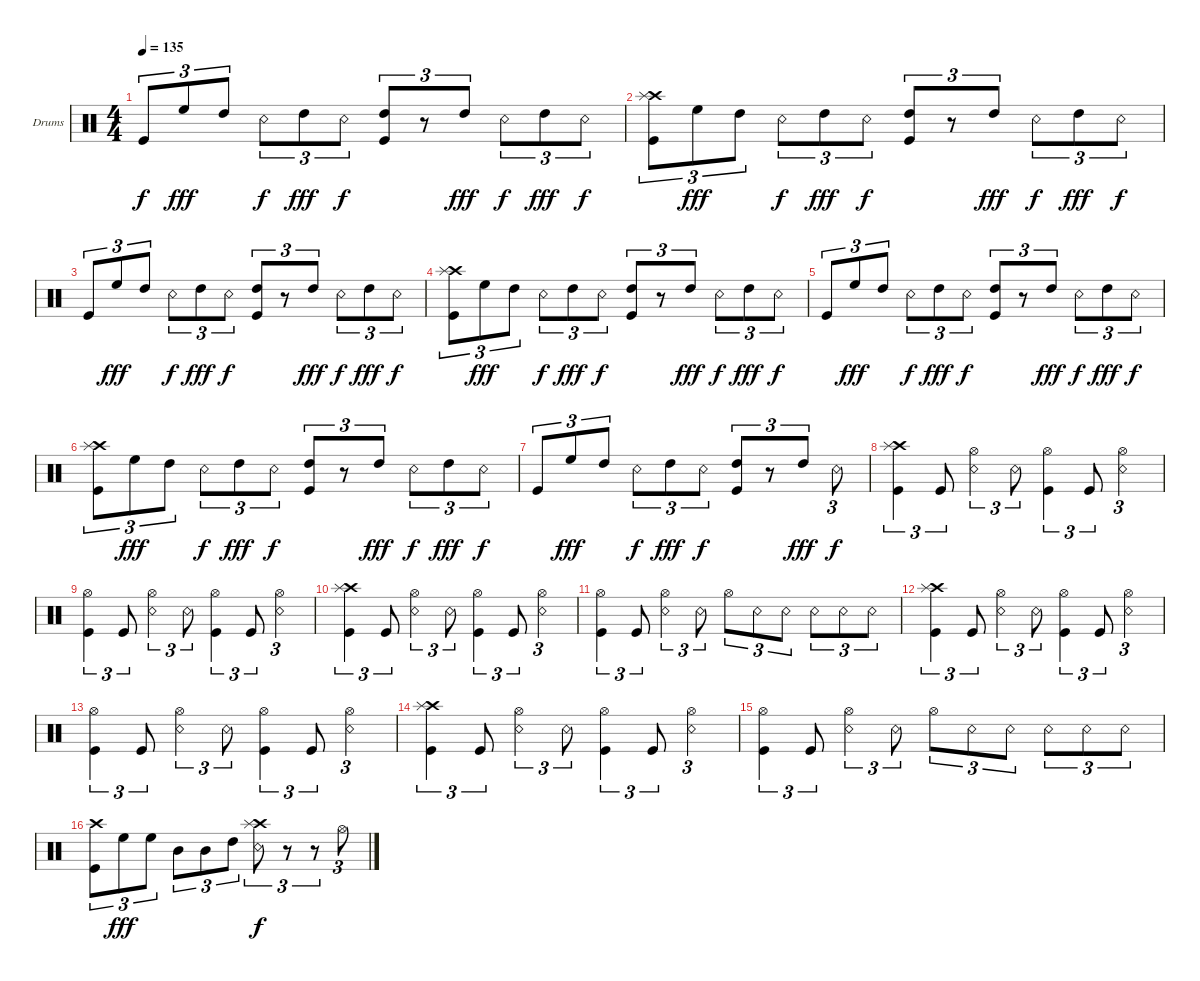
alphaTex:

\bracketExtendMode groupsimilarinstruments
\firstSystemTrackNameOrientation horizontal
\otherSystemsTrackNameOrientation horizontal
\track ("Drumkit" "Drums") {instrument percussion}
\staff {score}
\articulation defaults
\ts (4 4)
\tempo 135
\clef neutral
\scale
0.333333
\ks c "Kick (hit)".8{tu (3 2) dy f} "High Floor Tom (hit)".8{tu (3 2) dy fff} "High Tom (hit)".8{tu (3 2)} "Snare (rim shot)".8{tu (3 2) dy f} "High Tom (hit)".8{tu (3 2) dy fff} "Snare (rim shot)".8{tu (3 2) dy f}
("Kick (hit)" "High Tom (hit)").8{tu (3 2)} r.8{tu (3 2)} "High Tom (hit)".8{tu (3 2) dy fff} "Snare (rim shot)".8{tu (3 2) dy f} "High Tom (hit)".8{tu (3 2) dy fff} "Snare (rim shot)".8{tu (3 2) dy f} |
\scale
0.333333 ("Kick (hit)" "Crash high (hit)" "Splash (hit)").8{tu (3 2)} "High Floor Tom (hit)".8{tu (3 2) dy fff} "High Tom (hit)".8{tu (3 2)} "Snare (rim shot)".8{tu (3 2) dy f} "High Tom (hit)".8{tu (3 2) dy fff} "Snare (rim shot)".8{tu (3 2) dy f} ("Kick (hit)" "High Tom (hit)").8{tu (3 2)} r.8{tu (3 2)} "High Tom (hit)".8{tu (3 2) dy fff} "Snare (rim shot)".8{tu (3 2) dy f} "High Tom (hit)".8{tu (3 2) dy fff} "Snare (rim shot)".8{tu (3 2) dy f} |
\scale
0.333333 "Kick (hit)".8{tu (3 2)} "High Floor Tom (hit)".8{tu (3 2) dy fff} "High Tom (hit)".8{tu (3 2)} "Snare (rim shot)".8{tu (3 2) dy f} "High Tom (hit)".8{tu (3 2) dy fff} "Snare (rim shot)".8{tu (3 2) dy f} ("Kick (hit)" "High Tom (hit)").8{tu (3 2)} r.8{tu (3 2)} "High Tom (hit)".8{tu (3 2) dy fff} "Snare (rim shot)".8{tu (3 2) dy f} "High Tom (hit)".8{tu (3 2) dy fff} "Snare (rim shot)".8{tu (3 2) dy f} |
\scale
0.333333 ("Kick (hit)" "Crash high (hit)" "Splash (hit)").8{tu (3 2)} "High Floor Tom (hit)".8{tu (3 2) dy fff} "High Tom (hit)".8{tu (3 2)} "Snare (rim shot)".8{tu (3 2) dy f} "High Tom (hit)".8{tu (3 2) dy fff} "Snare (rim shot)".8{tu (3 2) dy f} ("Kick (hit)" "High Tom (hit)").8{tu (3 2)} r.8{tu (3 2)} "High Tom (hit)".8{tu (3 2) dy fff} "Snare (rim shot)".8{tu (3 2) dy f} "High Tom (hit)".8{tu (3 2) dy fff} "Snare (rim shot)".8{tu (3 2) dy f} |
\scale
0.333333 "Kick (hit)".8{tu (3 2)} "High Floor Tom (hit)".8{tu (3 2) dy fff} "High Tom (hit)".8{tu (3 2)} "Snare (rim shot)".8{tu (3 2) dy f} "High Tom (hit)".8{tu (3 2) dy fff} "Snare (rim shot)".8{tu (3 2) dy f} ("Kick (hit)" "High Tom (hit)").8{tu (3 2)} r.8{tu (3 2)} "High Tom (hit)".8{tu (3 2) dy fff} "Snare (rim shot)".8{tu (3 2) dy f} "High Tom (hit)".8{tu (3 2) dy fff} "Snare (rim shot)".8{tu (3 2) dy f} |
\scale
0.333333 ("Kick (hit)" "Crash high (hit)" "Splash (hit)").8{tu (3 2)} "High Floor Tom (hit)".8{tu (3 2) dy fff} "High Tom (hit)".8{tu (3 2)} "Snare (rim shot)".8{tu (3 2) dy f} "High Tom (hit)".8{tu (3 2) dy fff} "Snare (rim shot)".8{tu (3 2) dy f} ("Kick (hit)" "High Tom (hit)").8{tu (3 2)} r.8{tu (3 2)} "High Tom (hit)".8{tu (3 2) dy fff} "Snare (rim shot)".8{tu (3 2) dy f} "High Tom (hit)".8{tu (3 2) dy fff} "Snare (rim shot)".8{tu (3 2) dy f} |
\scale
0.333333 "Kick (hit)".8{tu (3 2)} "High Floor Tom (hit)".8{tu (3 2) dy fff} "High Tom (hit)".8{tu (3 2)} "Snare (rim shot)".8{tu (3 2) dy f} "High Tom (hit)".8{tu (3 2) dy fff} "Snare (rim shot)".8{tu (3 2) dy f} ("Kick (hit)" "High Tom (hit)").8{tu (3 2)} r.8{tu (3 2)} "High Tom (hit)".8{tu (3 2) dy fff} "Snare (rim shot)".8{tu (3 2) dy f} |
\scale
0.390805 ("Kick (hit)" "Crash high (hit)" "Splash (hit)").4{tu (3 2)} "Kick (hit)".8{tu (3 2)} ("Snare (rim shot)" "Hi-Hat (open)").4{tu (3 2)} "Snare (rim shot)".8{tu (3 2)} ("Kick (hit)" "Hi-Hat (open)").4{tu (3 2)} "Kick (hit)".8{tu (3 2)} ("Snare (rim shot)" "Hi-Hat (open)").4{tu (3 2)} |
\scale
0.218391 ("Kick (hit)" "Hi-Hat (open)").4{tu (3 2)} "Kick (hit)".8{tu (3 2)} ("Snare (rim shot)" "Hi-Hat (open)").4{tu (3 2)} "Snare (rim shot)".8{tu (3 2)} ("Kick (hit)" "Hi-Hat (open)").4{tu (3 2)} "Kick (hit)".8{tu (3 2)} ("Snare (rim shot)" "Hi-Hat (open)").4{tu (3 2)} |
\scale
0.333333 ("Kick (hit)" "Crash high (hit)" "Splash (hit)").4{tu (3 2)} "Kick (hit)".8{tu (3 2)} ("Snare (rim shot)" "Hi-Hat (open)").4{tu (3 2)} "Snare (rim shot)".8{tu (3 2)} ("Kick (hit)" "Hi-Hat (open)").4{tu (3 2)} "Kick (hit)".8{tu (3 2)} ("Snare (rim shot)" "Hi-Hat (open)").4{tu (3 2)} |
\scale
0.333333 ("Kick (hit)" "Hi-Hat (open)").4{tu (3 2)} "Kick (hit)".8{tu (3 2)} ("Snare (rim shot)" "Hi-Hat (open)").4{tu (3 2)} "Snare (rim shot)".8{tu (3 2)} "Hi-Hat (open)".8{tu (3 2)} "Snare (rim shot)".8{tu (3 2)} "Snare (rim shot)".8{tu (3 2)} "Snare (rim shot)".8{tu (3 2)} "Snare (rim shot)".8{tu (3 2)} "Snare (rim shot)".8{tu (3 2)} |
\scale
0.333333 ("Kick (hit)" "Crash high (hit)" "Splash (hit)").4{tu (3 2)} "Kick (hit)".8{tu (3 2)} ("Snare (rim shot)" "Hi-Hat (open)").4{tu (3 2)} "Snare (rim shot)".8{tu (3 2)} ("Kick (hit)" "Hi-Hat (open)").4{tu (3 2)} "Kick (hit)".8{tu (3 2)} ("Snare (rim shot)" "Hi-Hat (open)").4{tu (3 2)} |
\scale
0.333333 ("Kick (hit)" "Hi-Hat (open)").4{tu (3 2)} "Kick (hit)".8{tu (3 2)} ("Snare (rim shot)" "Hi-Hat (open)").4{tu (3 2)} "Snare (rim shot)".8{tu (3 2)} ("Kick (hit)" "Hi-Hat (open)").4{tu (3 2)} "Kick (hit)".8{tu (3 2)} ("Snare (rim shot)" "Hi-Hat (open)").4{tu (3 2)} |
\scale
0.333333 ("Kick (hit)" "Crash high (hit)" "Splash (hit)").4{tu (3 2)} "Kick (hit)".8{tu (3 2)} ("Snare (rim shot)" "Hi-Hat (open)").4{tu (3 2)} "Snare (rim shot)".8{tu (3 2)} ("Kick (hit)" "Hi-Hat (open)").4{tu (3 2)} "Kick (hit)".8{tu (3 2)} ("Snare (rim shot)" "Hi-Hat (open)").4{tu (3 2)} |
\scale
0.333333 ("Kick (hit)" "Hi-Hat (open)").4{tu (3 2)} "Kick (hit)".8{tu (3 2)} ("Snare (rim shot)" "Hi-Hat (open)").4{tu (3 2)} "Snare (rim shot)".8{tu (3 2)} "Hi-Hat (open)".8{tu (3 2)} "Snare (rim shot)".8{tu (3 2)} "Snare (rim shot)".8{tu (3 2)} "Snare (rim shot)".8{tu (3 2)} "Snare (rim shot)".8{tu (3 2)} "Snare (rim shot)".8{tu (3 2)} |
\scale
0.333333 ("Kick (hit)" "Crash high (hit)").8{tu (3 2)} "High Floor Tom (hit)".8{tu (3 2) dy fff} "High Floor Tom (hit)".8{tu (3 2)} "Mid Tom (hit)".8{tu (3 2)} "Mid Tom (hit)".8{tu (3 2)} "High Tom (hit)".8{tu (3 2)} ("Snare (rim shot)" "Crash high (hit)" "Splash (hit)").8{tu (3 2) dy f} r.8{tu (3 2)} r.8{tu (3 2)} "Hi-Hat (open)".8{tu (3 2)}
